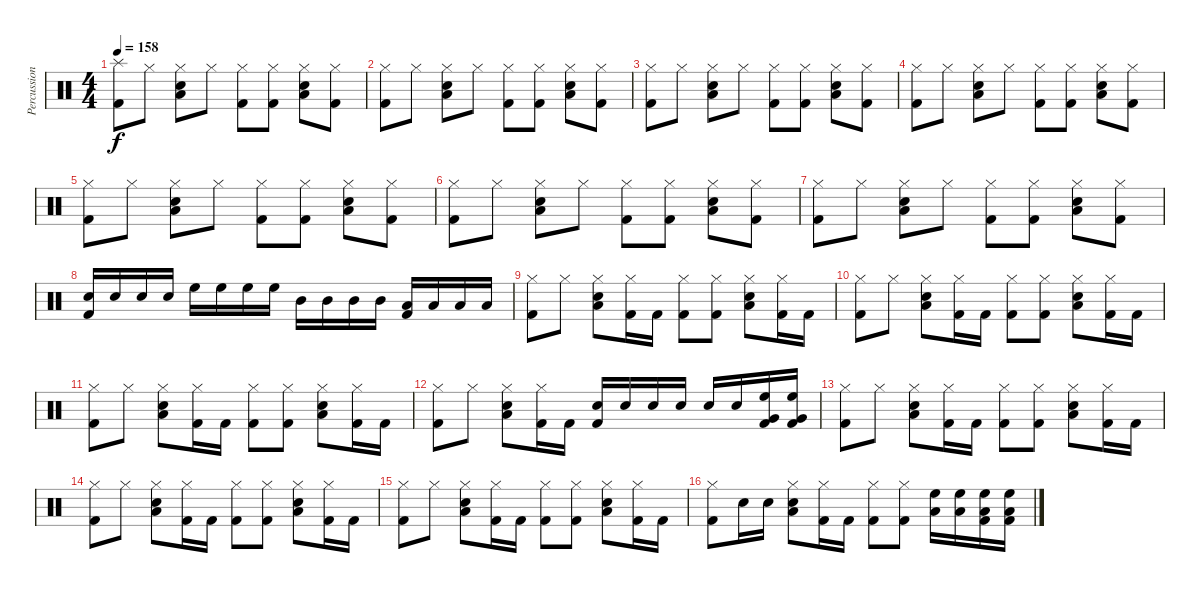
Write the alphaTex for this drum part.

\track ("Percussion" "Percussion") {instrument percussion}
\staff {score}
\articulation defaults
\ts (4 4)
\tempo 158
\clef neutral
\ks c
("Splash (hit)" "Kick (hit) 2").8{dy f} "Hi-Hat (closed)".8 ("Snare (hit) 2" "Low Tom (hit)" "Hi-Hat (closed)").8 "Hi-Hat (closed)".8 ("Kick (hit) 2" "Hi-Hat (closed)").8 ("Kick (hit) 2" "Hi-Hat (closed)").8 ("Snare (hit) 2" "Low Tom (hit)" "Hi-Hat (closed)").8 ("Kick (hit) 2" "Hi-Hat (closed)").8 |
("Hi-Hat (closed)" "Kick (hit) 2").8 "Hi-Hat (closed)".8 ("Snare (hit) 2" "Low Tom (hit)" "Hi-Hat (closed)").8 "Hi-Hat (closed)".8 ("Kick (hit) 2" "Hi-Hat (closed)").8 ("Kick (hit) 2" "Hi-Hat (closed)").8 ("Snare (hit) 2" "Low Tom (hit)" "Hi-Hat (closed)").8 ("Kick (hit) 2" "Hi-Hat (closed)").8 |
("Hi-Hat (closed)" "Kick (hit) 2").8 "Hi-Hat (closed)".8 ("Snare (hit) 2" "Low Tom (hit)" "Hi-Hat (closed)").8 "Hi-Hat (closed)".8 ("Kick (hit) 2" "Hi-Hat (closed)").8 ("Kick (hit) 2" "Hi-Hat (closed)").8 ("Snare (hit) 2" "Low Tom (hit)" "Hi-Hat (closed)").8 ("Kick (hit) 2" "Hi-Hat (closed)").8 |
("Hi-Hat (closed)" "Kick (hit) 2").8 "Hi-Hat (closed)".8 ("Snare (hit) 2" "Low Tom (hit)" "Hi-Hat (closed)").8 "Hi-Hat (closed)".8 ("Kick (hit) 2" "Hi-Hat (closed)").8 ("Kick (hit) 2" "Hi-Hat (closed)").8 ("Snare (hit) 2" "Low Tom (hit)" "Hi-Hat (closed)").8 ("Kick (hit) 2" "Hi-Hat (closed)").8 |
("Hi-Hat (closed)" "Kick (hit) 2").8 "Hi-Hat (closed)".8 ("Snare (hit) 2" "Low Tom (hit)" "Hi-Hat (closed)").8 "Hi-Hat (closed)".8 ("Kick (hit) 2" "Hi-Hat (closed)").8 ("Kick (hit) 2" "Hi-Hat (closed)").8 ("Snare (hit) 2" "Low Tom (hit)" "Hi-Hat (closed)").8 ("Kick (hit) 2" "Hi-Hat (closed)").8 |
("Hi-Hat (closed)" "Kick (hit) 2").8 "Hi-Hat (closed)".8 ("Snare (hit) 2" "Low Tom (hit)" "Hi-Hat (closed)").8 "Hi-Hat (closed)".8 ("Kick (hit) 2" "Hi-Hat (closed)").8 ("Kick (hit) 2" "Hi-Hat (closed)").8 ("Snare (hit) 2" "Low Tom (hit)" "Hi-Hat (closed)").8 ("Kick (hit) 2" "Hi-Hat (closed)").8 |
("Hi-Hat (closed)" "Kick (hit) 2").8 "Hi-Hat (closed)".8 ("Snare (hit) 2" "Low Tom (hit)" "Hi-Hat (closed)").8 "Hi-Hat (closed)".8 ("Kick (hit) 2" "Hi-Hat (closed)").8 ("Kick (hit) 2" "Hi-Hat (closed)").8 ("Snare (hit) 2" "Low Tom (hit)" "Hi-Hat (closed)").8 ("Kick (hit) 2" "Hi-Hat (closed)").8 |
("Snare (hit) 2" "Kick (hit) 2").16 "Snare (hit) 2".16 "Snare (hit) 2".16 "Snare (hit) 2".16 "High Floor Tom (hit)".16 "High Floor Tom (hit)".16 "High Floor Tom (hit)".16 "High Floor Tom (hit)".16 "Mid Tom (hit)".16 "Mid Tom (hit)".16 "Mid Tom (hit)".16 "Mid Tom (hit)".16 ("Low Tom (hit)" "Kick (hit) 2").16 "Low Tom (hit)".16 "Low Tom (hit)".16 "Low Tom (hit)".16 |
("Hi-Hat (closed)" "Kick (hit) 2").8 "Hi-Hat (closed)".8 ("Hi-Hat (closed)" "Low Tom (hit)" "Snare (hit) 2").8 ("Hi-Hat (closed)" "Kick (hit) 2").16 "Kick (hit) 2".16 ("Kick (hit) 2" "Hi-Hat (closed)").8 ("Kick (hit) 2" "Hi-Hat (closed)").8 ("Snare (hit) 2" "Low Tom (hit)" "Hi-Hat (closed)").8 ("Kick (hit) 2" "Hi-Hat (closed)").16 "Kick (hit) 2".16 |
("Hi-Hat (closed)" "Kick (hit) 2").8 "Hi-Hat (closed)".8 ("Hi-Hat (closed)" "Low Tom (hit)" "Snare (hit) 2").8 ("Hi-Hat (closed)" "Kick (hit) 2").16 "Kick (hit) 2".16 ("Kick (hit) 2" "Hi-Hat (closed)").8 ("Kick (hit) 2" "Hi-Hat (closed)").8 ("Snare (hit) 2" "Low Tom (hit)" "Hi-Hat (closed)").8 ("Kick (hit) 2" "Hi-Hat (closed)").16 "Kick (hit) 2".16 |
("Hi-Hat (closed)" "Kick (hit) 2").8 "Hi-Hat (closed)".8 ("Hi-Hat (closed)" "Low Tom (hit)" "Snare (hit) 2").8 ("Hi-Hat (closed)" "Kick (hit) 2").16 "Kick (hit) 2".16 ("Kick (hit) 2" "Hi-Hat (closed)").8 ("Kick (hit) 2" "Hi-Hat (closed)").8 ("Snare (hit) 2" "Low Tom (hit)" "Hi-Hat (closed)").8 ("Kick (hit) 2" "Hi-Hat (closed)").16 "Kick (hit) 2".16 |
("Hi-Hat (closed)" "Kick (hit) 2").8 "Hi-Hat (closed)".8 ("Hi-Hat (closed)" "Low Tom (hit)" "Snare (hit) 2").8 ("Hi-Hat (closed)" "Kick (hit) 2").16 "Kick (hit) 2".16 ("Kick (hit) 2" "Snare (hit) 2").16 "Snare (hit) 2".16 "Snare (hit) 2".16 "Snare (hit) 2".16 "Snare (hit) 2".16 "Snare (hit) 2".16 ("Kick (hit) 2" "High Floor Tom (hit)" "Very Low Tom (hit)").16 ("Kick (hit) 2" "High Floor Tom (hit)" "Very Low Tom (hit)").16 |
("Hi-Hat (closed)" "Kick (hit) 2").8 "Hi-Hat (closed)".8 ("Hi-Hat (closed)" "Low Tom (hit)" "Snare (hit) 2").8 ("Hi-Hat (closed)" "Kick (hit) 2").16 "Kick (hit) 2".16 ("Kick (hit) 2" "Hi-Hat (closed)").8 ("Kick (hit) 2" "Hi-Hat (closed)").8 ("Snare (hit) 2" "Low Tom (hit)" "Hi-Hat (closed)").8 ("Kick (hit) 2" "Hi-Hat (closed)").16 "Kick (hit) 2".16 |
("Hi-Hat (closed)" "Kick (hit) 2").8 "Hi-Hat (closed)".8 ("Hi-Hat (closed)" "Low Tom (hit)" "Snare (hit) 2").8 ("Hi-Hat (closed)" "Kick (hit) 2").16 "Kick (hit) 2".16 ("Kick (hit) 2" "Hi-Hat (closed)").8 ("Kick (hit) 2" "Hi-Hat (closed)").8 ("Snare (hit) 2" "Low Tom (hit)" "Hi-Hat (closed)").8 ("Kick (hit) 2" "Hi-Hat (closed)").16 "Kick (hit) 2".16 |
("Hi-Hat (closed)" "Kick (hit) 2").8 "Hi-Hat (closed)".8 ("Hi-Hat (closed)" "Low Tom (hit)" "Snare (hit) 2").8 ("Hi-Hat (closed)" "Kick (hit) 2").16 "Kick (hit) 2".16 ("Kick (hit) 2" "Hi-Hat (closed)").8 ("Kick (hit) 2" "Hi-Hat (closed)").8 ("Snare (hit) 2" "Low Tom (hit)" "Hi-Hat (closed)").8 ("Kick (hit) 2" "Hi-Hat (closed)").16 "Kick (hit) 2".16 |
("Hi-Hat (closed)" "Kick (hit) 2").8 "Snare (hit) 2".16 "Snare (hit) 2".16 ("Hi-Hat (closed)" "Low Tom (hit)" "Snare (hit) 2").8 ("Hi-Hat (closed)" "Kick (hit) 2").16 "Kick (hit) 2".16 ("Kick (hit) 2" "Hi-Hat (closed)").8 ("Kick (hit) 2" "Hi-Hat (closed)").8 ("High Floor Tom (hit)" "Low Tom (hit)").16 ("Low Tom (hit)" "High Floor Tom (hit)").16 ("Kick (hit) 2" "High Floor Tom (hit)" "Low Tom (hit)").16 ("Kick (hit) 2" "High Floor Tom (hit)" "Low Tom (hit)").16
